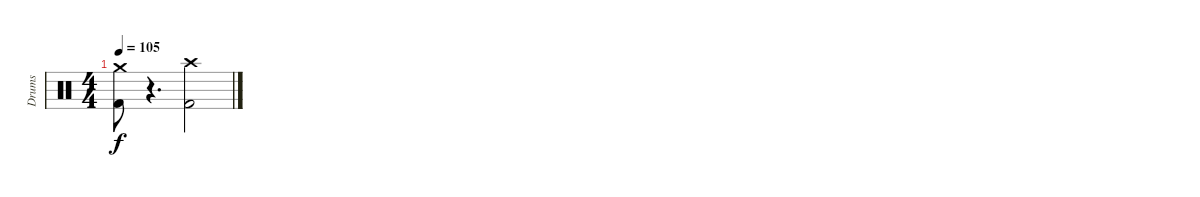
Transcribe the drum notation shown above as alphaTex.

\track ("Drums" "Drums") {instrument percussion}
\staff {score}
\articulation defaults
\ts (4 4)
\tempo 105
\clef neutral
\ks c
("Crash medium (hit)" "Kick (hit) 2").8{dy f} r.4{d} ("Crash high (hit)" "Kick (hit) 2").2
